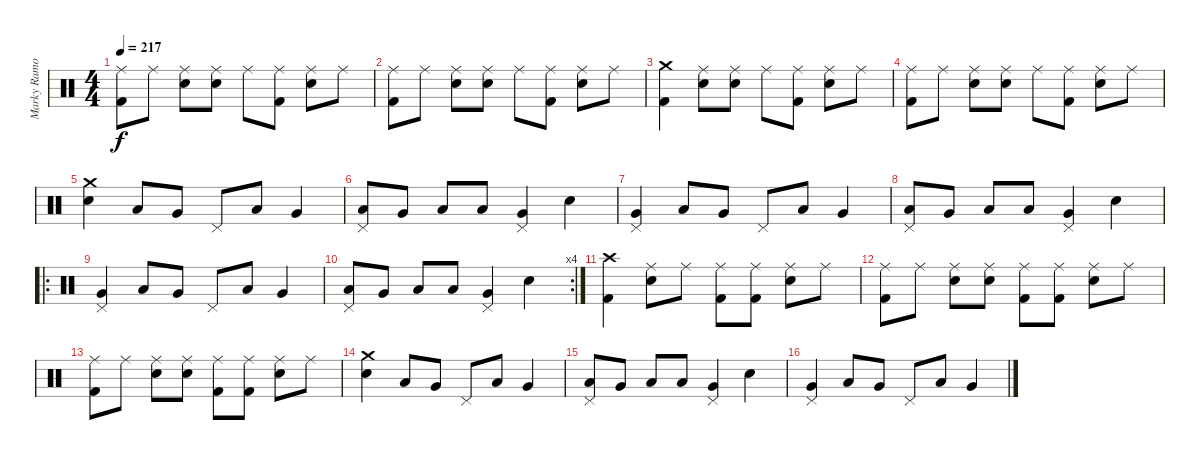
\track ("Marky Ramone" "Marky Ramo") {instrument percussion}
\staff {score}
\articulation defaults
\ts (4 4)
\tempo 217
\clef neutral
\ks c
("Ride (middle)" "Kick (hit) 2").8{dy f} "Ride (middle)".8 ("Ride (middle)" "Electric Snare (hit)").8 ("Ride (middle)" "Electric Snare (hit)").8 "Ride (middle)".8 ("Ride (middle)" "Kick (hit) 2").8 ("Ride (middle)" "Electric Snare (hit)").8 "Ride (middle)".8 |
("Ride (middle)" "Kick (hit) 2").8 "Ride (middle)".8 ("Ride (middle)" "Electric Snare (hit)").8 ("Ride (middle)" "Electric Snare (hit)").8 "Ride (middle)".8 ("Ride (middle)" "Kick (hit) 2").8 ("Ride (middle)" "Electric Snare (hit)").8 "Ride (middle)".8 |
("Crash medium (hit)" "Kick (hit) 2").4 ("Ride (middle)" "Electric Snare (hit)").8 ("Ride (middle)" "Electric Snare (hit)").8 "Ride (middle)".8 ("Ride (middle)" "Kick (hit) 2").8 ("Ride (middle)" "Electric Snare (hit)").8 "Ride (middle)".8 |
("Ride (middle)" "Kick (hit) 2").8 "Ride (middle)".8 ("Ride (middle)" "Electric Snare (hit)").8 ("Ride (middle)" "Electric Snare (hit)").8 "Ride (middle)".8 ("Ride (middle)" "Kick (hit) 2").8 ("Ride (middle)" "Electric Snare (hit)").8 "Ride (middle)".8 |
("Crash medium (hit)" "Electric Snare (hit)").4 "Low Tom (hit)".8 "Very Low Tom (hit)".8 "Pedal Hi-Hat (hit)".8 "Low Tom (hit)".8 "Very Low Tom (hit)".4 |
("Pedal Hi-Hat (hit)" "Low Tom (hit)").8 "Very Low Tom (hit)".8 "Low Floor Tom (hit)".8 "Low Tom (hit)".8 ("Pedal Hi-Hat (hit)" "Very Low Tom (hit)").4 "Electric Snare (hit)".4 |
("Pedal Hi-Hat (hit)" "Very Low Tom (hit)").4 "Low Tom (hit)".8 "Very Low Tom (hit)".8 "Pedal Hi-Hat (hit)".8 "Low Tom (hit)".8 "Very Low Tom (hit)".4 |
("Pedal Hi-Hat (hit)" "Low Tom (hit)").8 "Very Low Tom (hit)".8 "Low Floor Tom (hit)".8 "Low Tom (hit)".8 ("Pedal Hi-Hat (hit)" "Very Low Tom (hit)").4 "Electric Snare (hit)".4 |
\ro
("Pedal Hi-Hat (hit)" "Very Low Tom (hit)").4 "Low Tom (hit)".8 "Very Low Tom (hit)".8 "Pedal Hi-Hat (hit)".8 "Low Tom (hit)".8 "Very Low Tom (hit)".4 |
\rc 4
("Pedal Hi-Hat (hit)" "Low Tom (hit)").8 "Very Low Tom (hit)".8 "Low Floor Tom (hit)".8 "Low Tom (hit)".8 ("Pedal Hi-Hat (hit)" "Very Low Tom (hit)").4 "Electric Snare (hit)".4 |
("Crash high (hit)" "Kick (hit) 2").4 ("Ride (middle)" "Electric Snare (hit)").8 "Ride (middle)".8 ("Ride (middle)" "Kick (hit) 2").8 ("Ride (middle)" "Kick (hit) 2").8 ("Ride (middle)" "Electric Snare (hit)").8 "Ride (middle)".8 |
("Ride (middle)" "Kick (hit) 2").8 "Ride (middle)".8 ("Ride (middle)" "Electric Snare (hit)").8 ("Ride (middle)" "Electric Snare (hit)").8 ("Ride (middle)" "Kick (hit) 2").8 ("Ride (middle)" "Kick (hit) 2").8 ("Ride (middle)" "Electric Snare (hit)").8 "Ride (middle)".8 |
("Ride (middle)" "Kick (hit) 2").8 "Ride (middle)".8 ("Ride (middle)" "Electric Snare (hit)").8 ("Ride (middle)" "Electric Snare (hit)").8 ("Ride (middle)" "Kick (hit) 2").8 ("Ride (middle)" "Kick (hit) 2").8 ("Ride (middle)" "Electric Snare (hit)").8 "Ride (middle)".8 |
("Crash medium (hit)" "Electric Snare (hit)").4 "Low Tom (hit)".8 "Very Low Tom (hit)".8 "Pedal Hi-Hat (hit)".8 "Low Tom (hit)".8 "Very Low Tom (hit)".4 |
("Pedal Hi-Hat (hit)" "Low Tom (hit)").8 "Very Low Tom (hit)".8 "Low Floor Tom (hit)".8 "Low Tom (hit)".8 ("Pedal Hi-Hat (hit)" "Very Low Tom (hit)").4 "Electric Snare (hit)".4 |
("Pedal Hi-Hat (hit)" "Very Low Tom (hit)").4 "Low Tom (hit)".8 "Very Low Tom (hit)".8 "Pedal Hi-Hat (hit)".8 "Low Tom (hit)".8 "Very Low Tom (hit)".4
